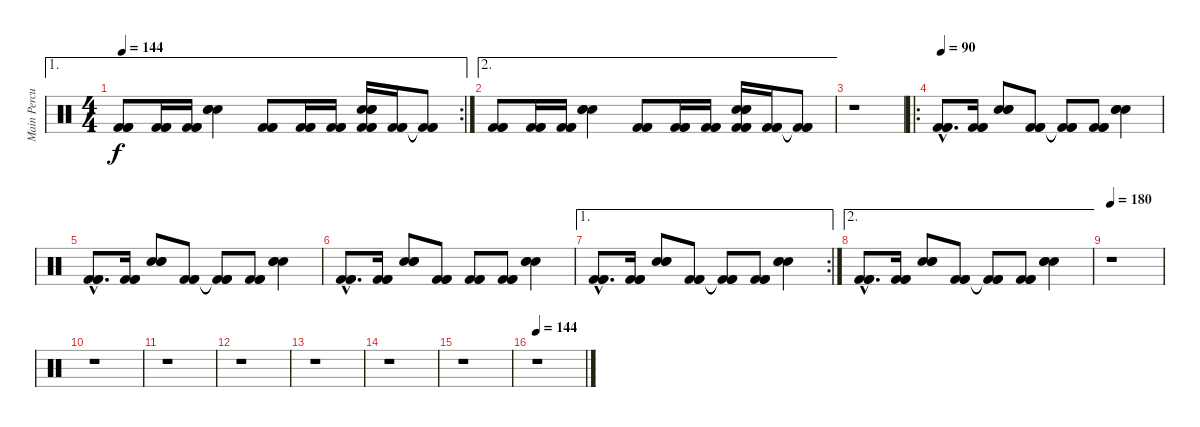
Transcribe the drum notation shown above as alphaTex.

\track ("Main Percussion" "Main Percu") {instrument percussion}
\staff {score}
\articulation defaults
\ae 1
\rc 2
\ts (4 4)
\tempo 144
\clef neutral
\ks c
("Kick (hit) 2" "Kick (hit) 2" "Kick (hit) 2").8{dy f} ("Kick (hit) 2" "Kick (hit) 2" "Kick (hit) 2").16 ("Kick (hit) 2" "Kick (hit) 2" "Kick (hit) 2").16 ("Electric Snare (hit)" "Electric Snare (hit)" "Electric Snare (hit)").4 ("Kick (hit) 2" "Kick (hit) 2" "Kick (hit) 2").8 ("Kick (hit) 2" "Kick (hit) 2" "Kick (hit) 2").16 ("Kick (hit) 2" "Kick (hit) 2" "Kick (hit) 2").16 ("Snare (hit) 2" "Snare (hit) 2" "Snare (hit) 2" "Kick (hit) 2" "Kick (hit) 2" "Kick (hit) 2").16 ("Kick (hit) 2" "Kick (hit) 2" "Kick (hit) 2").16 ("Kick (hit) 2"{t} "Kick (hit) 2"{t} "Kick (hit) 2"{t}).8 |
\ae 2
("Kick (hit) 2" "Kick (hit) 2" "Kick (hit) 2").8 ("Kick (hit) 2" "Kick (hit) 2" "Kick (hit) 2").16 ("Kick (hit) 2" "Kick (hit) 2" "Kick (hit) 2").16 ("Electric Snare (hit)" "Electric Snare (hit)" "Electric Snare (hit)").4 ("Kick (hit) 2" "Kick (hit) 2" "Kick (hit) 2").8 ("Kick (hit) 2" "Kick (hit) 2" "Kick (hit) 2").16 ("Kick (hit) 2" "Kick (hit) 2" "Kick (hit) 2").16 ("Snare (hit) 2" "Snare (hit) 2" "Snare (hit) 2" "Kick (hit) 2" "Kick (hit) 2" "Kick (hit) 2").16 ("Kick (hit) 2" "Kick (hit) 2" "Kick (hit) 2").16 ("Kick (hit) 2"{t} "Kick (hit) 2"{t} "Kick (hit) 2"{t}).8 |
r.1 |
\ro
\tempo 90
("Kick (hit) 2"{hac} "Kick (hit) 2"{hac} "Kick (hit) 2"{hac}).8{d} ("Kick (hit) 2" "Kick (hit) 2" "Kick (hit) 2").16 ("Electric Snare (hit)" "Electric Snare (hit)" "Electric Snare (hit)").8 ("Kick (hit) 2" "Kick (hit) 2" "Kick (hit) 2").8 ("Kick (hit) 2"{t} "Kick (hit) 2"{t} "Kick (hit) 2"{t}).8 ("Kick (hit) 2" "Kick (hit) 2" "Kick (hit) 2").8 ("Electric Snare (hit)" "Electric Snare (hit)" "Electric Snare (hit)").4 |
("Kick (hit) 2"{hac} "Kick (hit) 2"{hac} "Kick (hit) 2"{hac}).8{d} ("Kick (hit) 2" "Kick (hit) 2" "Kick (hit) 2").16 ("Electric Snare (hit)" "Electric Snare (hit)" "Electric Snare (hit)").8 ("Kick (hit) 2" "Kick (hit) 2" "Kick (hit) 2").8 ("Kick (hit) 2"{t} "Kick (hit) 2"{t} "Kick (hit) 2"{t}).8 ("Kick (hit) 2" "Kick (hit) 2" "Kick (hit) 2").8 ("Electric Snare (hit)" "Electric Snare (hit)" "Electric Snare (hit)").4 |
("Kick (hit) 2"{hac} "Kick (hit) 2"{hac} "Kick (hit) 2"{hac}).8{d} ("Kick (hit) 2" "Kick (hit) 2" "Kick (hit) 2").16 ("Electric Snare (hit)" "Electric Snare (hit)" "Electric Snare (hit)").8 ("Kick (hit) 2" "Kick (hit) 2" "Kick (hit) 2").8 ("Kick (hit) 2" "Kick (hit) 2" "Kick (hit) 2").8 ("Kick (hit) 2" "Kick (hit) 2" "Kick (hit) 2").8 ("Electric Snare (hit)" "Electric Snare (hit)" "Electric Snare (hit)").4 |
\ae 1
\rc 2
("Kick (hit) 2"{hac} "Kick (hit) 2"{hac} "Kick (hit) 2"{hac}).8{d} ("Kick (hit) 2" "Kick (hit) 2" "Kick (hit) 2").16 ("Electric Snare (hit)" "Electric Snare (hit)" "Electric Snare (hit)").8 ("Kick (hit) 2" "Kick (hit) 2" "Kick (hit) 2").8 ("Kick (hit) 2"{t} "Kick (hit) 2"{t} "Kick (hit) 2"{t}).8 ("Kick (hit) 2" "Kick (hit) 2" "Kick (hit) 2").8 ("Electric Snare (hit)" "Electric Snare (hit)" "Electric Snare (hit)").4 |
\ae 2
("Kick (hit) 2"{hac} "Kick (hit) 2"{hac} "Kick (hit) 2"{hac}).8{d} ("Kick (hit) 2" "Kick (hit) 2" "Kick (hit) 2").16 ("Electric Snare (hit)" "Electric Snare (hit)" "Electric Snare (hit)").8 ("Kick (hit) 2" "Kick (hit) 2" "Kick (hit) 2").8 ("Kick (hit) 2"{t} "Kick (hit) 2"{t} "Kick (hit) 2"{t}).8 ("Kick (hit) 2" "Kick (hit) 2" "Kick (hit) 2").8 ("Electric Snare (hit)" "Electric Snare (hit)" "Electric Snare (hit)").4 |
\tempo 180
r.1 |
r.1 |
r.1 |
r.1 |
r.1 |
r.1 |
r.1 |
\tempo 144
r.1
